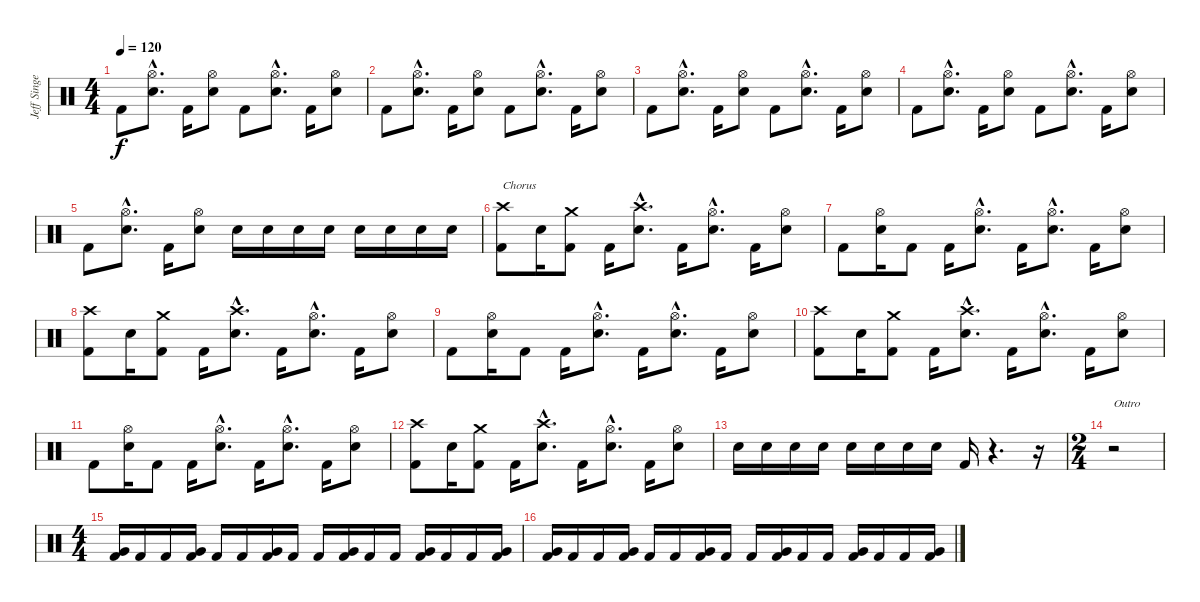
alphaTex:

\track ("Jeff Singer" "Jeff Singe") {instrument percussion}
\staff {score}
\articulation defaults
\ts (4 4)
\tempo 120
\clef neutral
\ks c "Kick (hit) 2".8{dy f}
("Hi-Hat (open)"{hac} "Snare (hit) 2"{hac}).8{d} "Kick (hit) 2".16 ("Hi-Hat (open)" "Snare (hit) 2").8 "Kick (hit) 2".8 ("Hi-Hat (open)"{hac} "Snare (hit) 2"{hac}).8{d} "Kick (hit) 2".16 ("Hi-Hat (open)" "Snare (hit) 2").8 |
"Kick (hit) 2".8 ("Hi-Hat (open)"{hac} "Snare (hit) 2"{hac}).8{d} "Kick (hit) 2".16 ("Hi-Hat (open)" "Snare (hit) 2").8 "Kick (hit) 2".8 ("Hi-Hat (open)"{hac} "Snare (hit) 2"{hac}).8{d} "Kick (hit) 2".16 ("Hi-Hat (open)" "Snare (hit) 2").8 |
"Kick (hit) 2".8 ("Hi-Hat (open)"{hac} "Snare (hit) 2"{hac}).8{d} "Kick (hit) 2".16 ("Hi-Hat (open)" "Snare (hit) 2").8 "Kick (hit) 2".8 ("Hi-Hat (open)"{hac} "Snare (hit) 2"{hac}).8{d} "Kick (hit) 2".16 ("Hi-Hat (open)" "Snare (hit) 2").8 |
"Kick (hit) 2".8 ("Hi-Hat (open)"{hac} "Snare (hit) 2"{hac}).8{d} "Kick (hit) 2".16 ("Hi-Hat (open)" "Snare (hit) 2").8 "Kick (hit) 2".8 ("Hi-Hat (open)"{hac} "Snare (hit) 2"{hac}).8{d} "Kick (hit) 2".16 ("Hi-Hat (open)" "Snare (hit) 2").8 |
"Kick (hit) 2".8 ("Hi-Hat (open)"{hac} "Snare (hit) 2"{hac}).8{d} "Kick (hit) 2".16 ("Hi-Hat (open)" "Snare (hit) 2").8 "Snare (hit) 2".16 "Snare (hit) 2".16 "Snare (hit) 2".16 "Snare (hit) 2".16 "Snare (hit) 2".16 "Snare (hit) 2".16 "Snare (hit) 2".16 "Snare (hit) 2".16 |
("Crash high (hit)" "Kick (hit) 2").8{txt "Chorus"} "Snare (hit) 2".16 ("Crash medium (hit)" "Kick (hit) 2").8 "Kick (hit) 2".16 ("Crash high (hit)"{hac} "Snare (hit) 2"{hac}).8{d} "Kick (hit) 2".16 ("Hi-Hat (open)"{hac} "Snare (hit) 2"{hac}).8{d} "Kick (hit) 2".16 ("Hi-Hat (open)" "Snare (hit) 2").8 |
"Kick (hit) 2".8 ("Hi-Hat (open)" "Snare (hit) 2").16 "Kick (hit) 2".8 "Kick (hit) 2".16 ("Hi-Hat (open)"{hac} "Snare (hit) 2"{hac}).8{d} "Kick (hit) 2".16 ("Hi-Hat (open)"{hac} "Snare (hit) 2"{hac}).8{d} "Kick (hit) 2".16 ("Hi-Hat (open)" "Snare (hit) 2").8 |
("Crash high (hit)" "Kick (hit) 2").8 "Snare (hit) 2".16 ("Crash medium (hit)" "Kick (hit) 2").8 "Kick (hit) 2".16 ("Crash high (hit)"{hac} "Snare (hit) 2"{hac}).8{d} "Kick (hit) 2".16 ("Hi-Hat (open)"{hac} "Snare (hit) 2"{hac}).8{d} "Kick (hit) 2".16 ("Hi-Hat (open)" "Snare (hit) 2").8 |
"Kick (hit) 2".8 ("Hi-Hat (open)" "Snare (hit) 2").16 "Kick (hit) 2".8 "Kick (hit) 2".16 ("Hi-Hat (open)"{hac} "Snare (hit) 2"{hac}).8{d} "Kick (hit) 2".16 ("Hi-Hat (open)"{hac} "Snare (hit) 2"{hac}).8{d} "Kick (hit) 2".16 ("Hi-Hat (open)" "Snare (hit) 2").8 |
("Crash high (hit)" "Kick (hit) 2").8 "Snare (hit) 2".16 ("Crash medium (hit)" "Kick (hit) 2").8 "Kick (hit) 2".16 ("Crash high (hit)"{hac} "Snare (hit) 2"{hac}).8{d} "Kick (hit) 2".16 ("Hi-Hat (open)"{hac} "Snare (hit) 2"{hac}).8{d} "Kick (hit) 2".16 ("Hi-Hat (open)" "Snare (hit) 2").8 |
"Kick (hit) 2".8 ("Hi-Hat (open)" "Snare (hit) 2").16 "Kick (hit) 2".8 "Kick (hit) 2".16 ("Hi-Hat (open)"{hac} "Snare (hit) 2"{hac}).8{d} "Kick (hit) 2".16 ("Hi-Hat (open)"{hac} "Snare (hit) 2"{hac}).8{d} "Kick (hit) 2".16 ("Hi-Hat (open)" "Snare (hit) 2").8 |
("Crash high (hit)" "Kick (hit) 2").8 "Snare (hit) 2".16 ("Crash medium (hit)" "Kick (hit) 2").8 "Kick (hit) 2".16 ("Crash high (hit)"{hac} "Snare (hit) 2"{hac}).8{d} "Kick (hit) 2".16 ("Hi-Hat (open)"{hac} "Snare (hit) 2"{hac}).8{d} "Kick (hit) 2".16 ("Hi-Hat (open)" "Snare (hit) 2").8 |
"Snare (hit) 2".16 "Snare (hit) 2".16 "Snare (hit) 2".16 "Snare (hit) 2".16 "Snare (hit) 2".16 "Snare (hit) 2".16 "Snare (hit) 2".16 "Snare (hit) 2".16 "Kick (hit) 2".16 r.4{d} r.16 |
\ts (2 4)
r.2{txt "Outro"} |
\ts (4 4)
("Very Low Tom (hit)" "Kick (hit) 2").16 "Kick (hit) 2".16 "Kick (hit) 2".16 ("Very Low Tom (hit)" "Kick (hit) 2").16 "Kick (hit) 2".16 "Kick (hit) 2".16 ("Very Low Tom (hit)" "Kick (hit) 2").16 "Kick (hit) 2".16 "Kick (hit) 2".16 ("Very Low Tom (hit)" "Kick (hit) 2").16 "Kick (hit) 2".16 "Kick (hit) 2".16 ("Very Low Tom (hit)" "Kick (hit) 2").16 "Kick (hit) 2".16 "Kick (hit) 2".16 ("Very Low Tom (hit)" "Kick (hit) 2").16 |
("Very Low Tom (hit)" "Kick (hit) 2").16 "Kick (hit) 2".16 "Kick (hit) 2".16 ("Very Low Tom (hit)" "Kick (hit) 2").16 "Kick (hit) 2".16 "Kick (hit) 2".16 ("Very Low Tom (hit)" "Kick (hit) 2").16 "Kick (hit) 2".16 "Kick (hit) 2".16 ("Very Low Tom (hit)" "Kick (hit) 2").16 "Kick (hit) 2".16 "Kick (hit) 2".16 ("Very Low Tom (hit)" "Kick (hit) 2").16 "Kick (hit) 2".16 "Kick (hit) 2".16 ("Very Low Tom (hit)" "Kick (hit) 2").16
